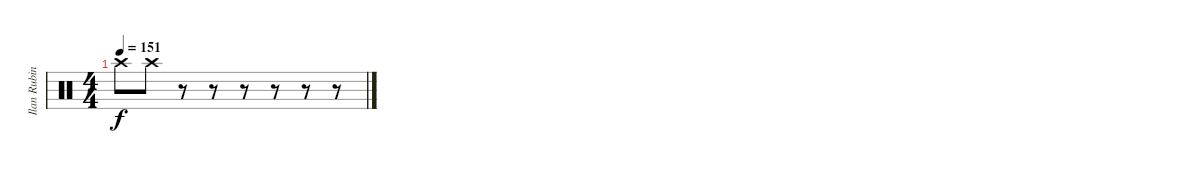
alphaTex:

\track ("Ilan Rubin [Drums]" "Ilan Rubin") {instrument percussion}
\staff {score}
\articulation defaults
\ts (4 4)
\tempo 151
\clef neutral
\ks c "Crash high (hit)".8{dy f} "Crash high (hit)".8
r.8 r.8 r.8 r.8 r.8 r.8
